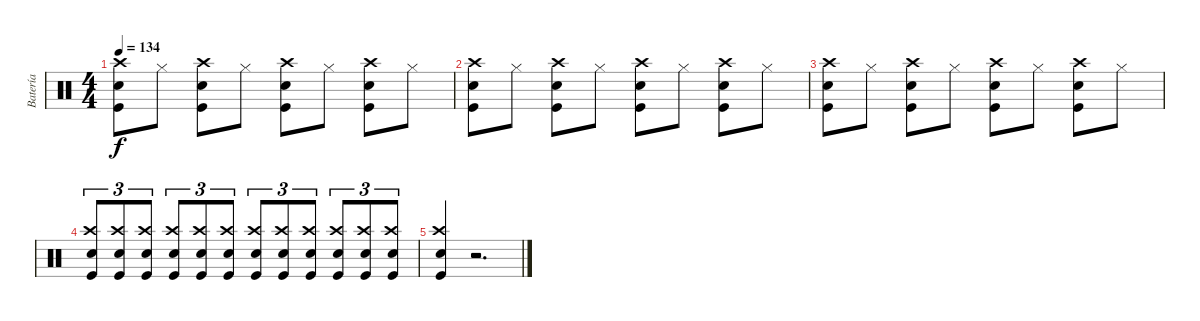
\track ("Batería" "Batería") {instrument percussion}
\staff {score}
\articulation defaults
\ts (4 4)
\tempo 134
\clef neutral
\ks c
("Snare (hit) 2" "Crash high (hit)" "Kick (hit)").8{dy f} "Hi-Hat (closed)".8 ("Snare (hit) 2" "Crash high (hit)" "Kick (hit)").8 "Hi-Hat (closed)".8 ("Snare (hit) 2" "Crash high (hit)" "Kick (hit)").8 "Hi-Hat (closed)".8 ("Snare (hit) 2" "Crash high (hit)" "Kick (hit)").8 "Hi-Hat (closed)".8 |
("Snare (hit) 2" "Crash high (hit)" "Kick (hit)").8 "Hi-Hat (closed)".8 ("Snare (hit) 2" "Crash high (hit)" "Kick (hit)").8 "Hi-Hat (closed)".8 ("Snare (hit) 2" "Crash high (hit)" "Kick (hit)").8 "Hi-Hat (closed)".8 ("Snare (hit) 2" "Crash high (hit)" "Kick (hit)").8 "Hi-Hat (closed)".8 |
("Snare (hit) 2" "Crash high (hit)" "Kick (hit)").8 "Hi-Hat (closed)".8 ("Snare (hit) 2" "Crash high (hit)" "Kick (hit)").8 "Hi-Hat (closed)".8 ("Snare (hit) 2" "Crash high (hit)" "Kick (hit)").8 "Hi-Hat (closed)".8 ("Snare (hit) 2" "Crash high (hit)" "Kick (hit)").8 "Hi-Hat (closed)".8 |
("Snare (hit) 2" "Crash high (hit)" "Kick (hit)").8{tu (3 2)} ("Snare (hit) 2" "Crash high (hit)" "Kick (hit)").8{tu (3 2)} ("Snare (hit) 2" "Crash high (hit)" "Kick (hit)").8{tu (3 2)} ("Snare (hit) 2" "Crash high (hit)" "Kick (hit)").8{tu (3 2)} ("Snare (hit) 2" "Crash high (hit)" "Kick (hit)").8{tu (3 2)} ("Snare (hit) 2" "Crash high (hit)" "Kick (hit)").8{tu (3 2)} ("Snare (hit) 2" "Crash high (hit)" "Kick (hit)").8{tu (3 2)} ("Snare (hit) 2" "Crash high (hit)" "Kick (hit)").8{tu (3 2)} ("Snare (hit) 2" "Crash high (hit)" "Kick (hit)").8{tu (3 2)} ("Snare (hit) 2" "Crash high (hit)" "Kick (hit)").8{tu (3 2)} ("Snare (hit) 2" "Crash high (hit)" "Kick (hit)").8{tu (3 2)} ("Snare (hit) 2" "Crash high (hit)" "Kick (hit)").8{tu (3 2)} |
("Snare (hit) 2" "Crash high (hit)" "Kick (hit)").4 r.2{d}
